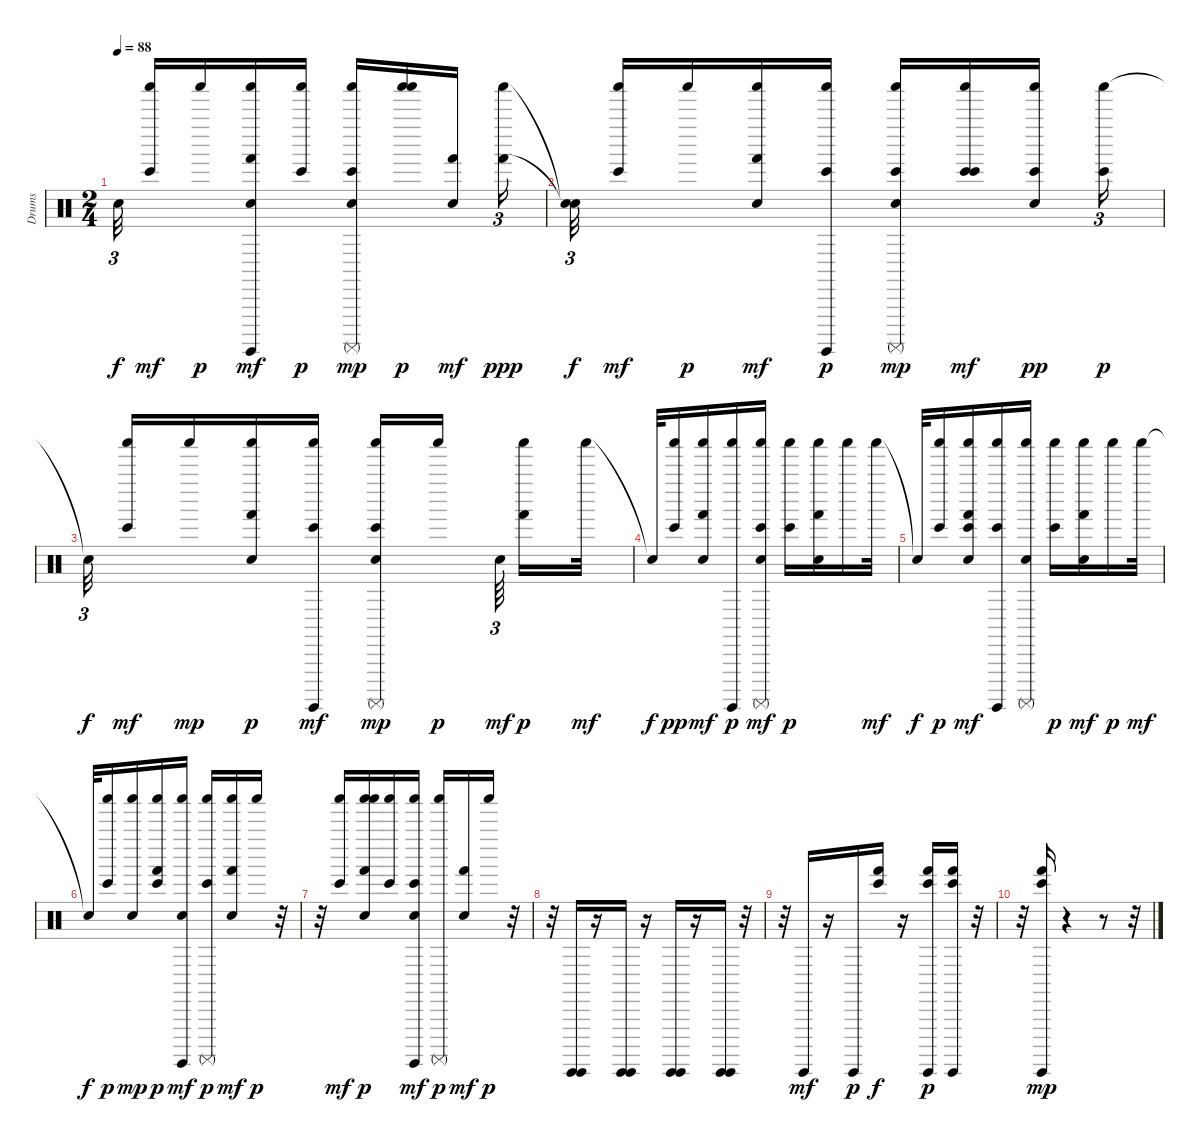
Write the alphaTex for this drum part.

\track ("Drums" "Drums") {instrument percussion}
\staff {score}
\articulation defaults
\ts (2 4)
\tempo 88
\clef neutral
\ks c "Snare (hit)"{t}.32{tu (3 2) dy f}
("Shaker (hit)" "Bongo High (hit)").16{dy mf} "Shaker (hit)".16{dy p} ("Hand Clap (hit)" "Shaker (hit)" "Hand (hit)" "Surdo (hit)").16{dy mf} ("Shaker (hit)" "Bongo High (hit)").16{dy p} ("Shaker (hit)" "Hand Clap (hit)" "Surdo (mute)" "Bongo High (hit)").16{dy mp} ("Shaker (hit)" "Shaker (hit)").16{dy p} ("Hand (hit)" "Hand Clap (hit)").16{dy mf} ("Shaker (hit)" "Hand (hit)").16{tu (3 2) dy ppp} |
("Snare (hit)"{t} "Snare (hit)"{t}).32{tu (3 2) dy f} ("Shaker (hit)" "Bongo High (hit)").16{dy mf} "Shaker (hit)".16{dy p} ("Shaker (hit)" "Hand Clap (hit)" "Hand (hit)").16{dy mf} ("Bongo High (hit)" "Shaker (hit)" "Surdo (hit)").16{dy p} ("Shaker (hit)" "Hand Clap (hit)" "Surdo (mute)" "Bongo High (hit)").16{dy mp} ("Shaker (hit)" "Bongo High (hit)" "Bongo High (hit)").16{dy mf} ("Hand Clap (hit)" "Bongo High (hit)" "Shaker (hit)").16{dy pp} ("Shaker (hit)" "Bongo High (hit)").16{tu (3 2) dy p} |
"Snare (hit)"{t}.32{tu (3 2) dy f} ("Shaker (hit)" "Bongo High (hit)").16{dy mf} "Shaker (hit)".16{dy mp} ("Hand Clap (hit)" "Hand (hit)" "Shaker (hit)").16{dy p} ("Shaker (hit)" "Surdo (hit)" "Bongo High (hit)").16{dy mf} ("Hand Clap (hit)" "Shaker (hit)" "Bongo High (hit)" "Surdo (mute)").16{dy mp} "Shaker (hit)".16{dy p} "Hand Clap (hit)".64{tu (3 2) dy mf} ("Hand (hit)" "Shaker (hit)").16{dy p} "Shaker (hit)".32{dy mf} |
"Snare (hit)"{t}.32{dy f} ("Bongo High (hit)" "Shaker (hit)").16{dy pp} ("Hand Clap (hit)" "Shaker (hit)" "Hand (hit)").16{dy mf} ("Surdo (hit)" "Shaker (hit)").16{dy p} ("Bongo High (hit)" "Hand Clap (hit)" "Surdo (mute)" "Shaker (hit)").16{dy mf} ("Bongo High (hit)" "Shaker (hit)").16{dy p} ("Hand Clap (hit)" "Shaker (hit)" "Hand (hit)").16 "Shaker (hit)".16 "Shaker (hit)".32{dy mf} |
"Snare (hit)"{t}.32{dy f} ("Bongo High (hit)" "Shaker (hit)").16{dy p} ("Bongo High (hit)" "Hand Clap (hit)" "Shaker (hit)" "Hand (hit)").16{dy mf} ("Surdo (hit)" "Shaker (hit)" "Bongo High (hit)").16 ("Surdo (mute)" "Hand Clap (hit)" "Shaker (hit)").16 ("Bongo High (hit)" "Shaker (hit)").16{dy p} ("Shaker (hit)" "Hand Clap (hit)" "Hand (hit)").16{dy mf} "Shaker (hit)".16{dy p} "Shaker (hit)".32{dy mf} |
"Snare (hit)"{t}.32{dy f} ("Bongo High (hit)" "Shaker (hit)").16{dy p} ("Shaker (hit)" "Hand Clap (hit)").16{dy mp} ("Hand (hit)" "Shaker (hit)" "Bongo High (hit)").16{dy p} ("Surdo (hit)" "Hand Clap (hit)" "Shaker (hit)").16{dy mf} ("Surdo (mute)" "Bongo High (hit)" "Shaker (hit)").16{dy p} ("Shaker (hit)" "Hand Clap (hit)" "Hand (hit)").16{dy mf} "Shaker (hit)".16{dy p} r.32 |
r.32 ("Shaker (hit)" "Bongo High (hit)").16{dy mf} ("Shaker (hit)" "Hand Clap (hit)" "Hand (hit)" "Shaker (hit)").16{dy p} ("Shaker (hit)" "Bongo High (hit)").16 ("Surdo (hit)" "Hand Clap (hit)" "Shaker (hit)" "Bongo High (hit)").16{dy mf} ("Surdo (mute)" "Shaker (hit)").16{dy p} ("Hand Clap (hit)" "Hand (hit)").16{dy mf} "Shaker (hit)".16{dy p} r.32 |
r.32 ("Guiro (hit)" "Guiro (hit)").16 r.16 ("Guiro (hit)" "Guiro (hit)").16 r.16 ("Guiro (hit)" "Guiro (hit)").16 r.16 ("Guiro (hit)" "Guiro (hit)").16 r.32 |
r.32 "Guiro (hit)".16{dy mf} r.16 "Guiro (hit)".16{dy p} ("Bongo High (hit)" "Hand (hit)").16{dy f} r.16 ("Guiro (hit)" "Bongo High (hit)" "Hand (hit)").16{dy p} ("Bongo High (hit)" "Hand (hit)" "Guiro (hit)").16 r.32 |
r.32 ("Guiro (hit)" "Bongo High (hit)" "Hand (hit)").16{dy mp} r.4 r.8 r.32
